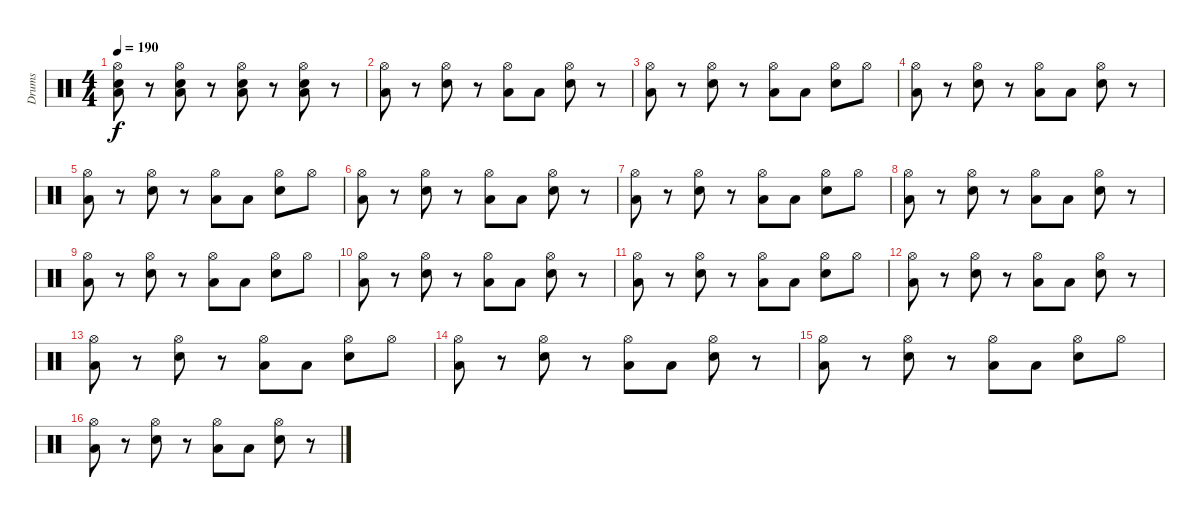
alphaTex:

\track ("Drums" "Drums") {instrument percussion}
\staff {score}
\articulation defaults
\ts (4 4)
\tempo 190
\clef neutral
\ks c
("Electric Snare (hit)" "Low Tom (hit)" "Hi-Hat (open)").8{dy f} r.8 ("Electric Snare (hit)" "Low Tom (hit)" "Hi-Hat (open)").8 r.8 ("Electric Snare (hit)" "Low Tom (hit)" "Hi-Hat (open)").8 r.8 ("Electric Snare (hit)" "Low Tom (hit)" "Hi-Hat (open)").8 r.8 |
("Low Tom (hit)" "Hi-Hat (open)").8 r.8 ("Electric Snare (hit)" "Hi-Hat (open)").8 r.8 ("Low Tom (hit)" "Hi-Hat (open)").8 "Low Tom (hit)".8 ("Electric Snare (hit)" "Hi-Hat (open)").8 r.8 |
("Low Tom (hit)" "Hi-Hat (open)").8 r.8 ("Electric Snare (hit)" "Hi-Hat (open)").8 r.8 ("Low Tom (hit)" "Hi-Hat (open)").8 "Low Tom (hit)".8 ("Electric Snare (hit)" "Hi-Hat (open)").8 "Hi-Hat (open)".8 |
("Low Tom (hit)" "Hi-Hat (open)").8 r.8 ("Electric Snare (hit)" "Hi-Hat (open)").8 r.8 ("Low Tom (hit)" "Hi-Hat (open)").8 "Low Tom (hit)".8 ("Electric Snare (hit)" "Hi-Hat (open)").8 r.8 |
("Low Tom (hit)" "Hi-Hat (open)").8 r.8 ("Electric Snare (hit)" "Hi-Hat (open)").8 r.8 ("Low Tom (hit)" "Hi-Hat (open)").8 "Low Tom (hit)".8 ("Electric Snare (hit)" "Hi-Hat (open)").8 "Hi-Hat (open)".8 |
("Low Tom (hit)" "Hi-Hat (open)").8 r.8 ("Electric Snare (hit)" "Hi-Hat (open)").8 r.8 ("Low Tom (hit)" "Hi-Hat (open)").8 "Low Tom (hit)".8 ("Electric Snare (hit)" "Hi-Hat (open)").8 r.8 |
("Low Tom (hit)" "Hi-Hat (open)").8 r.8 ("Electric Snare (hit)" "Hi-Hat (open)").8 r.8 ("Low Tom (hit)" "Hi-Hat (open)").8 "Low Tom (hit)".8 ("Electric Snare (hit)" "Hi-Hat (open)").8 "Hi-Hat (open)".8 |
("Low Tom (hit)" "Hi-Hat (open)").8 r.8 ("Electric Snare (hit)" "Hi-Hat (open)").8 r.8 ("Low Tom (hit)" "Hi-Hat (open)").8 "Low Tom (hit)".8 ("Electric Snare (hit)" "Hi-Hat (open)").8 r.8 |
("Low Tom (hit)" "Hi-Hat (open)").8 r.8 ("Electric Snare (hit)" "Hi-Hat (open)").8 r.8 ("Low Tom (hit)" "Hi-Hat (open)").8 "Low Tom (hit)".8 ("Electric Snare (hit)" "Hi-Hat (open)").8 "Hi-Hat (open)".8 |
("Low Tom (hit)" "Hi-Hat (open)").8 r.8 ("Electric Snare (hit)" "Hi-Hat (open)").8 r.8 ("Low Tom (hit)" "Hi-Hat (open)").8 "Low Tom (hit)".8 ("Electric Snare (hit)" "Hi-Hat (open)").8 r.8 |
("Low Tom (hit)" "Hi-Hat (open)").8 r.8 ("Electric Snare (hit)" "Hi-Hat (open)").8 r.8 ("Low Tom (hit)" "Hi-Hat (open)").8 "Low Tom (hit)".8 ("Electric Snare (hit)" "Hi-Hat (open)").8 "Hi-Hat (open)".8 |
("Low Tom (hit)" "Hi-Hat (open)").8 r.8 ("Electric Snare (hit)" "Hi-Hat (open)").8 r.8 ("Low Tom (hit)" "Hi-Hat (open)").8 "Low Tom (hit)".8 ("Electric Snare (hit)" "Hi-Hat (open)").8 r.8 |
("Low Tom (hit)" "Hi-Hat (open)").8 r.8 ("Electric Snare (hit)" "Hi-Hat (open)").8 r.8 ("Low Tom (hit)" "Hi-Hat (open)").8 "Low Tom (hit)".8 ("Electric Snare (hit)" "Hi-Hat (open)").8 "Hi-Hat (open)".8 |
("Low Tom (hit)" "Hi-Hat (open)").8 r.8 ("Electric Snare (hit)" "Hi-Hat (open)").8 r.8 ("Low Tom (hit)" "Hi-Hat (open)").8 "Low Tom (hit)".8 ("Electric Snare (hit)" "Hi-Hat (open)").8 r.8 |
("Low Tom (hit)" "Hi-Hat (open)").8 r.8 ("Electric Snare (hit)" "Hi-Hat (open)").8 r.8 ("Low Tom (hit)" "Hi-Hat (open)").8 "Low Tom (hit)".8 ("Electric Snare (hit)" "Hi-Hat (open)").8 "Hi-Hat (open)".8 |
("Low Tom (hit)" "Hi-Hat (open)").8 r.8 ("Electric Snare (hit)" "Hi-Hat (open)").8 r.8 ("Low Tom (hit)" "Hi-Hat (open)").8 "Low Tom (hit)".8 ("Electric Snare (hit)" "Hi-Hat (open)").8 r.8
